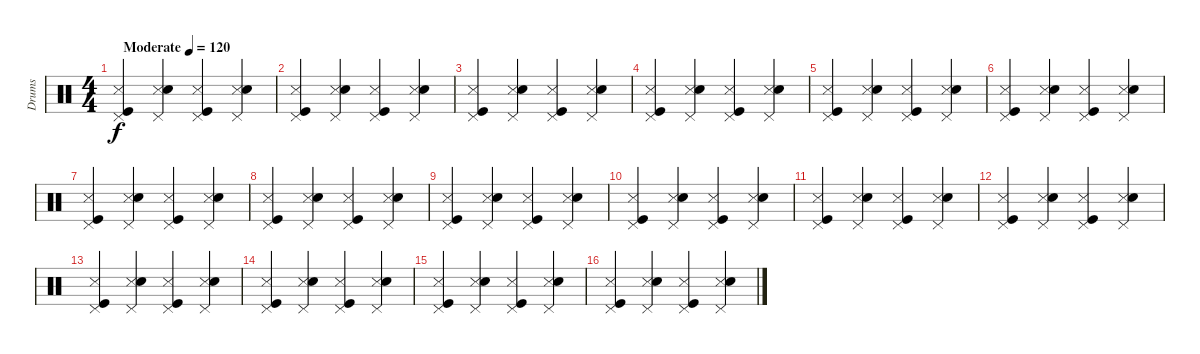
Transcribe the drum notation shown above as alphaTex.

\track ("Drums" "Drums") {instrument percussion}
\staff {score}
\articulation defaults
\ts (4 4)
\tempo (120 "Moderate")
\clef neutral
\ks c
("Pedal Hi-Hat (hit)" "Kick (hit)" "Snare (side stick) 3").4{dy f} ("Snare (side stick) 3" "Pedal Hi-Hat (hit)" "Snare (hit) 2").4 ("Pedal Hi-Hat (hit)" "Snare (side stick) 3" "Kick (hit)").4 ("Pedal Hi-Hat (hit)" "Snare (side stick) 3" "Snare (hit) 2").4 |
("Snare (side stick) 3" "Pedal Hi-Hat (hit)" "Kick (hit)").4 ("Snare (side stick) 3" "Pedal Hi-Hat (hit)" "Snare (hit) 2").4 ("Snare (side stick) 3" "Pedal Hi-Hat (hit)" "Kick (hit)").4 ("Snare (side stick) 3" "Pedal Hi-Hat (hit)" "Snare (hit) 2").4 |
("Snare (side stick) 3" "Pedal Hi-Hat (hit)" "Kick (hit)").4 ("Snare (side stick) 3" "Pedal Hi-Hat (hit)" "Snare (hit) 2").4 ("Snare (side stick) 3" "Pedal Hi-Hat (hit)" "Kick (hit)").4 ("Snare (side stick) 3" "Pedal Hi-Hat (hit)" "Snare (hit) 2").4 |
("Snare (side stick) 3" "Pedal Hi-Hat (hit)" "Kick (hit)").4 ("Snare (side stick) 3" "Pedal Hi-Hat (hit)" "Snare (hit) 2").4 ("Snare (side stick) 3" "Pedal Hi-Hat (hit)" "Kick (hit)").4 ("Snare (side stick) 3" "Pedal Hi-Hat (hit)" "Snare (hit) 2").4 |
("Snare (side stick) 3" "Pedal Hi-Hat (hit)" "Kick (hit)").4 ("Snare (side stick) 3" "Pedal Hi-Hat (hit)" "Snare (hit) 2").4 ("Snare (side stick) 3" "Pedal Hi-Hat (hit)" "Kick (hit)").4 ("Snare (side stick) 3" "Pedal Hi-Hat (hit)" "Snare (hit) 2").4 |
("Snare (side stick) 3" "Pedal Hi-Hat (hit)" "Kick (hit)").4 ("Snare (side stick) 3" "Pedal Hi-Hat (hit)" "Snare (hit) 2").4 ("Snare (side stick) 3" "Pedal Hi-Hat (hit)" "Kick (hit)").4 ("Snare (side stick) 3" "Pedal Hi-Hat (hit)" "Snare (hit) 2").4 |
("Snare (side stick) 3" "Pedal Hi-Hat (hit)" "Kick (hit)").4 ("Snare (side stick) 3" "Pedal Hi-Hat (hit)" "Snare (hit) 2").4 ("Snare (side stick) 3" "Pedal Hi-Hat (hit)" "Kick (hit)").4 ("Snare (side stick) 3" "Pedal Hi-Hat (hit)" "Snare (hit) 2").4 |
("Snare (side stick) 3" "Pedal Hi-Hat (hit)" "Kick (hit)").4 ("Snare (side stick) 3" "Pedal Hi-Hat (hit)" "Snare (hit) 2").4 ("Snare (side stick) 3" "Pedal Hi-Hat (hit)" "Kick (hit)").4 ("Snare (side stick) 3" "Pedal Hi-Hat (hit)" "Snare (hit) 2").4 |
("Snare (side stick) 3" "Pedal Hi-Hat (hit)" "Kick (hit)").4 ("Snare (side stick) 3" "Pedal Hi-Hat (hit)" "Snare (hit) 2").4 ("Snare (side stick) 3" "Pedal Hi-Hat (hit)" "Kick (hit)").4 ("Snare (side stick) 3" "Pedal Hi-Hat (hit)" "Snare (hit) 2").4 |
("Snare (side stick) 3" "Pedal Hi-Hat (hit)" "Kick (hit)").4 ("Snare (side stick) 3" "Pedal Hi-Hat (hit)" "Snare (hit) 2").4 ("Snare (side stick) 3" "Pedal Hi-Hat (hit)" "Kick (hit)").4 ("Snare (side stick) 3" "Pedal Hi-Hat (hit)" "Snare (hit) 2").4 |
("Snare (side stick) 3" "Pedal Hi-Hat (hit)" "Kick (hit)").4 ("Snare (side stick) 3" "Pedal Hi-Hat (hit)" "Snare (hit) 2").4 ("Snare (side stick) 3" "Pedal Hi-Hat (hit)" "Kick (hit)").4 ("Snare (side stick) 3" "Pedal Hi-Hat (hit)" "Snare (hit) 2").4 |
("Snare (side stick) 3" "Pedal Hi-Hat (hit)" "Kick (hit)").4 ("Snare (side stick) 3" "Pedal Hi-Hat (hit)" "Snare (hit) 2").4 ("Snare (side stick) 3" "Pedal Hi-Hat (hit)" "Kick (hit)").4 ("Snare (side stick) 3" "Pedal Hi-Hat (hit)" "Snare (hit) 2").4 |
("Snare (side stick) 3" "Pedal Hi-Hat (hit)" "Kick (hit)").4 ("Snare (side stick) 3" "Pedal Hi-Hat (hit)" "Snare (hit) 2").4 ("Snare (side stick) 3" "Pedal Hi-Hat (hit)" "Kick (hit)").4 ("Snare (side stick) 3" "Pedal Hi-Hat (hit)" "Snare (hit) 2").4 |
("Snare (side stick) 3" "Pedal Hi-Hat (hit)" "Kick (hit)").4 ("Snare (side stick) 3" "Pedal Hi-Hat (hit)" "Snare (hit) 2").4 ("Snare (side stick) 3" "Pedal Hi-Hat (hit)" "Kick (hit)").4 ("Snare (side stick) 3" "Pedal Hi-Hat (hit)" "Snare (hit) 2").4 |
("Snare (side stick) 3" "Pedal Hi-Hat (hit)" "Kick (hit)").4 ("Snare (side stick) 3" "Pedal Hi-Hat (hit)" "Snare (hit) 2").4 ("Snare (side stick) 3" "Pedal Hi-Hat (hit)" "Kick (hit)").4 ("Snare (side stick) 3" "Pedal Hi-Hat (hit)" "Snare (hit) 2").4 |
("Snare (side stick) 3" "Pedal Hi-Hat (hit)" "Kick (hit)").4 ("Snare (side stick) 3" "Pedal Hi-Hat (hit)" "Snare (hit) 2").4 ("Snare (side stick) 3" "Pedal Hi-Hat (hit)" "Kick (hit)").4 ("Snare (side stick) 3" "Pedal Hi-Hat (hit)" "Snare (hit) 2").4
